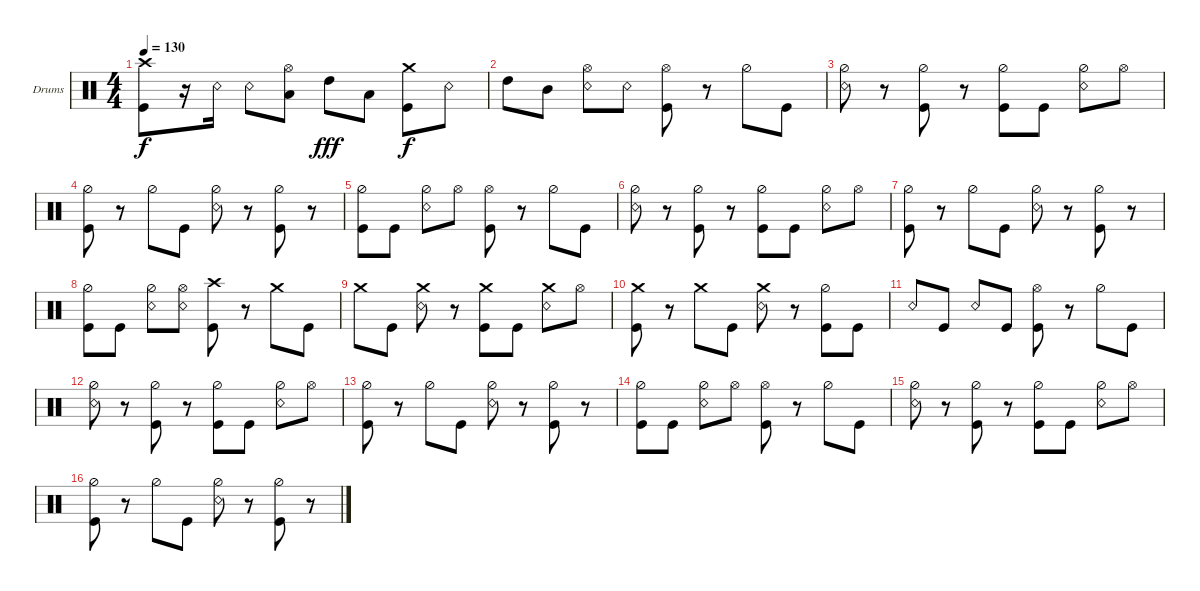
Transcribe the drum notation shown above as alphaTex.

\bracketExtendMode groupsimilarinstruments
\firstSystemTrackNameOrientation horizontal
\otherSystemsTrackNameOrientation horizontal
\track ("Drumkit" "Drums") {instrument percussion}
\staff {score}
\articulation defaults
\ts (4 4)
\tempo 130
\clef neutral
\scale
0.333333
\ks c
("Kick (hit)" "Crash high (hit)").8{dy f} r.16 "Snare (rim shot)".16 "Snare (rim shot)".8 ("Low Tom (hit)" "Hi-Hat (open)").8 "High Tom (hit)".8{dy fff} "Low Tom (hit)".8 ("Kick (hit)" "Crash medium (hit)").8{dy f} "Snare (rim shot)".8 |
\scale
0.333333 "High Tom (hit)".8 "Mid Tom (hit)".8 ("Snare (rim shot)" "Hi-Hat (open)").8 "Snare (rim shot)".8 ("Kick (hit)" "Hi-Hat (open)").8 r.8 "Hi-Hat (half)".8 "Kick (hit)".8 |
\scale
0.333333 ("Hi-Hat (half)" "Snare (rim shot)").8 r.8 ("Hi-Hat (half)" "Kick (hit)").8 r.8 ("Hi-Hat (half)" "Kick (hit)").8 "Kick (hit)".8 ("Hi-Hat (half)" "Snare (rim shot)").8 "Hi-Hat (open)".8 |
\scale
0.333333 ("Kick (hit)" "Hi-Hat (half)").8 r.8 "Hi-Hat (half)".8 "Kick (hit)".8 ("Hi-Hat (half)" "Snare (rim shot)").8 r.8 ("Hi-Hat (half)" "Kick (hit)").8 r.8 |
\scale
0.333333 ("Hi-Hat (half)" "Kick (hit)").8 "Kick (hit)".8 ("Hi-Hat (half)" "Snare (rim shot)").8 "Hi-Hat (open)".8 ("Kick (hit)" "Hi-Hat (open)").8 r.8 "Hi-Hat (half)".8 "Kick (hit)".8 |
\scale
0.333333 ("Hi-Hat (half)" "Snare (rim shot)").8 r.8 ("Hi-Hat (half)" "Kick (hit)").8 r.8 ("Hi-Hat (half)" "Kick (hit)").8 "Kick (hit)".8 ("Hi-Hat (half)" "Snare (rim shot)").8 "Hi-Hat (open)".8 |
\scale
0.333333 ("Kick (hit)" "Hi-Hat (half)").8 r.8 "Hi-Hat (half)".8 "Kick (hit)".8 ("Hi-Hat (half)" "Snare (rim shot)").8 r.8 ("Hi-Hat (half)" "Kick (hit)").8 r.8 |
\scale
0.333333 ("Hi-Hat (half)" "Kick (hit)").8 "Kick (hit)".8 ("Hi-Hat (half)" "Snare (rim shot)").8 ("Hi-Hat (open)" "Snare (rim shot)").8 ("Kick (hit)" "Crash high (hit)").8 r.8 "Crash medium (hit)".8 "Kick (hit)".8 |
\scale
0.333333 "Crash medium (hit)".8 "Kick (hit)".8 ("Crash medium (hit)" "Snare (rim shot)").8 r.8 ("Kick (hit)" "Crash medium (hit)").8 "Kick (hit)".8 ("Snare (rim shot)" "Crash medium (hit)").8 "Hi-Hat (open)".8 |
\scale
0.333333 ("Kick (hit)" "Crash medium (hit)").8 r.8 "Crash medium (hit)".8 "Kick (hit)".8 ("Snare (rim shot)" "Crash medium (hit)").8 r.8 ("Hi-Hat (half)" "Kick (hit)").8 "Kick (hit)".8 |
\scale
0.333333 "Snare (rim shot)".8 "Kick (hit)".8 "Snare (rim shot)".8 "Kick (hit)".8 ("Hi-Hat (open)" "Kick (hit)").8 r.8 "Hi-Hat (half)".8 "Kick (hit)".8 |
\scale
0.333333 ("Hi-Hat (half)" "Snare (rim shot)").8 r.8 ("Hi-Hat (half)" "Kick (hit)").8 r.8 ("Hi-Hat (half)" "Kick (hit)").8 "Kick (hit)".8 ("Hi-Hat (half)" "Snare (rim shot)").8 "Hi-Hat (open)".8 |
\scale
0.333333 ("Kick (hit)" "Hi-Hat (half)").8 r.8 "Hi-Hat (half)".8 "Kick (hit)".8 ("Hi-Hat (half)" "Snare (rim shot)").8 r.8 ("Hi-Hat (half)" "Kick (hit)").8 r.8 |
\scale
0.333333 ("Hi-Hat (half)" "Kick (hit)").8 "Kick (hit)".8 ("Hi-Hat (half)" "Snare (rim shot)").8 "Hi-Hat (open)".8 ("Hi-Hat (open)" "Kick (hit)").8 r.8 "Hi-Hat (half)".8 "Kick (hit)".8 |
\scale
0.333333 ("Hi-Hat (half)" "Snare (rim shot)").8 r.8 ("Hi-Hat (half)" "Kick (hit)").8 r.8 ("Hi-Hat (half)" "Kick (hit)").8 "Kick (hit)".8 ("Hi-Hat (half)" "Snare (rim shot)").8 "Hi-Hat (open)".8 |
\scale
0.333333 ("Kick (hit)" "Hi-Hat (half)").8 r.8 "Hi-Hat (half)".8 "Kick (hit)".8 ("Hi-Hat (half)" "Snare (rim shot)").8 r.8 ("Hi-Hat (half)" "Kick (hit)").8 r.8
